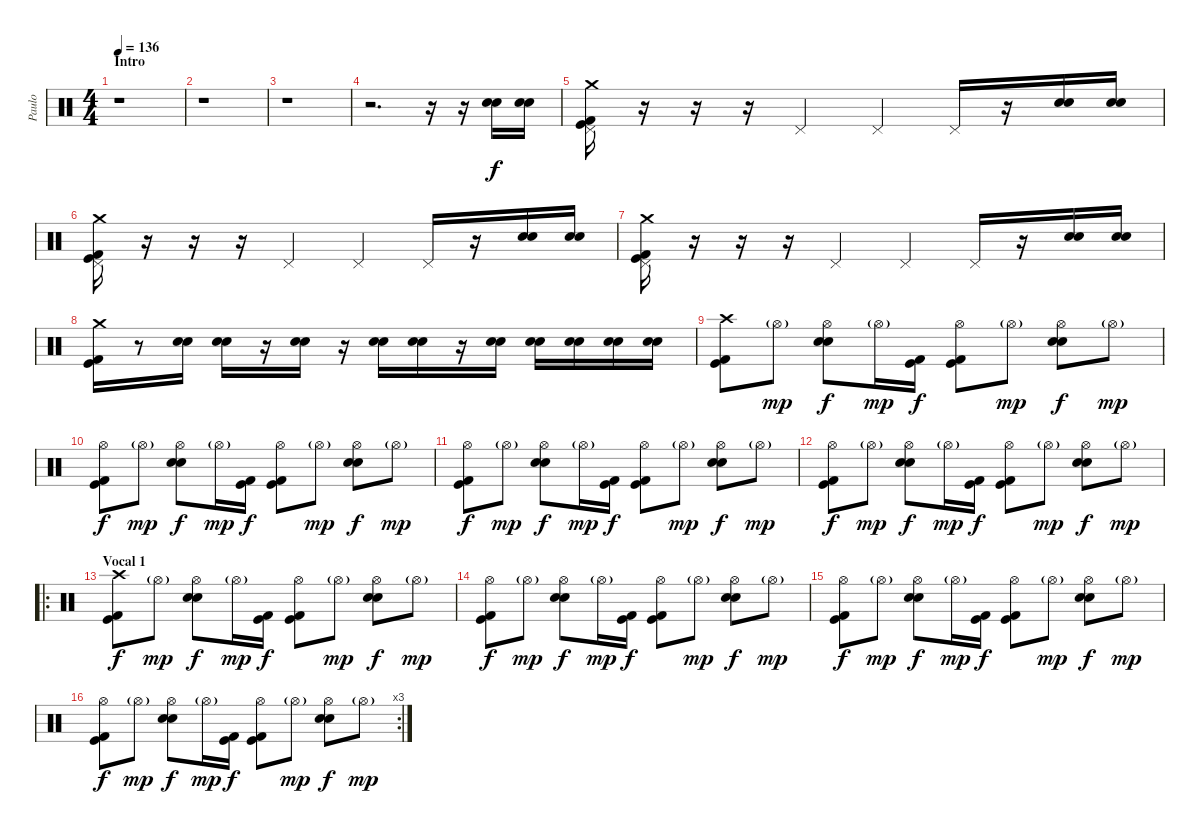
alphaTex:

\track ("Paulo" "Paulo") {instrument percussion}
\staff {score}
\articulation defaults
\ts (4 4)
\section ("" "Intro")
\tempo 136
\clef neutral
\ks c
r.1{dy f} |
r.1 |
r.1 |
r.2{d} r.16 r.16 ("Snare (hit) 2" "Electric Snare (hit)").16 ("Snare (hit) 2" "Electric Snare (hit)").16 |
("Crash medium (hit)" "Kick (hit) 2" "Kick (hit)" "Pedal Hi-Hat (hit)").16 r.16 r.16 r.16 "Pedal Hi-Hat (hit)".4 "Pedal Hi-Hat (hit)".4 "Pedal Hi-Hat (hit)".16 r.16 ("Snare (hit) 2" "Electric Snare (hit)").16 ("Snare (hit) 2" "Electric Snare (hit)").16 |
("Crash medium (hit)" "Kick (hit) 2" "Kick (hit)" "Pedal Hi-Hat (hit)").16 r.16 r.16 r.16 "Pedal Hi-Hat (hit)".4 "Pedal Hi-Hat (hit)".4 "Pedal Hi-Hat (hit)".16 r.16 ("Snare (hit) 2" "Electric Snare (hit)").16 ("Snare (hit) 2" "Electric Snare (hit)").16 |
("Crash medium (hit)" "Kick (hit) 2" "Kick (hit)" "Pedal Hi-Hat (hit)").16 r.16 r.16 r.16 "Pedal Hi-Hat (hit)".4 "Pedal Hi-Hat (hit)".4 "Pedal Hi-Hat (hit)".16 r.16 ("Snare (hit) 2" "Electric Snare (hit)").16 ("Snare (hit) 2" "Electric Snare (hit)").16 |
("Crash medium (hit)" "Kick (hit) 2" "Kick (hit)").16 r.8 ("Snare (hit) 2" "Electric Snare (hit)").16 ("Snare (hit) 2" "Electric Snare (hit)").16 r.16 ("Snare (hit) 2" "Electric Snare (hit)").16 r.16 ("Snare (hit) 2" "Electric Snare (hit)").16 ("Snare (hit) 2" "Electric Snare (hit)").16 r.16 ("Snare (hit) 2" "Electric Snare (hit)").16 ("Electric Snare (hit)" "Snare (hit) 2").16 ("Electric Snare (hit)" "Snare (hit) 2").16 ("Electric Snare (hit)" "Snare (hit) 2").16 ("Electric Snare (hit)" "Snare (hit) 2").16 |
("Crash high (hit)" "Kick (hit) 2" "Kick (hit)").8 "Hi-Hat (open)"{g}.8{dy mp} ("Hi-Hat (open)" "Electric Snare (hit)" "Snare (hit) 2").8{dy f} "Hi-Hat (open)"{g}.16{dy mp} ("Kick (hit) 2" "Kick (hit)").16{dy f} ("Hi-Hat (open)" "Kick (hit) 2" "Kick (hit)").8 "Hi-Hat (open)"{g}.8{dy mp} ("Hi-Hat (open)" "Electric Snare (hit)" "Snare (hit) 2").8{dy f} "Hi-Hat (open)"{g}.8{dy mp} |
("Hi-Hat (open)" "Kick (hit) 2" "Kick (hit)").8{dy f} "Hi-Hat (open)"{g}.8{dy mp} ("Hi-Hat (open)" "Electric Snare (hit)" "Snare (hit) 2").8{dy f} "Hi-Hat (open)"{g}.16{dy mp} ("Kick (hit) 2" "Kick (hit)").16{dy f} ("Hi-Hat (open)" "Kick (hit) 2" "Kick (hit)").8 "Hi-Hat (open)"{g}.8{dy mp} ("Hi-Hat (open)" "Electric Snare (hit)" "Snare (hit) 2").8{dy f} "Hi-Hat (open)"{g}.8{dy mp} |
("Hi-Hat (open)" "Kick (hit) 2" "Kick (hit)").8{dy f} "Hi-Hat (open)"{g}.8{dy mp} ("Hi-Hat (open)" "Electric Snare (hit)" "Snare (hit) 2").8{dy f} "Hi-Hat (open)"{g}.16{dy mp} ("Kick (hit) 2" "Kick (hit)").16{dy f} ("Hi-Hat (open)" "Kick (hit) 2" "Kick (hit)").8 "Hi-Hat (open)"{g}.8{dy mp} ("Hi-Hat (open)" "Electric Snare (hit)" "Snare (hit) 2").8{dy f} "Hi-Hat (open)"{g}.8{dy mp} |
("Hi-Hat (open)" "Kick (hit) 2" "Kick (hit)").8{dy f} "Hi-Hat (open)"{g}.8{dy mp} ("Hi-Hat (open)" "Electric Snare (hit)" "Snare (hit) 2").8{dy f} "Hi-Hat (open)"{g}.16{dy mp} ("Kick (hit) 2" "Kick (hit)").16{dy f} ("Hi-Hat (open)" "Kick (hit) 2" "Kick (hit)").8 "Hi-Hat (open)"{g}.8{dy mp} ("Hi-Hat (open)" "Electric Snare (hit)" "Snare (hit) 2").8{dy f} "Hi-Hat (open)"{g}.8{dy mp} |
\ro
\section ("" "Vocal 1")
("Crash high (hit)" "Kick (hit) 2" "Kick (hit)").8{dy f} "Hi-Hat (open)"{g}.8{dy mp} ("Hi-Hat (open)" "Electric Snare (hit)" "Snare (hit) 2").8{dy f} "Hi-Hat (open)"{g}.16{dy mp} ("Kick (hit) 2" "Kick (hit)").16{dy f} ("Hi-Hat (open)" "Kick (hit) 2" "Kick (hit)").8 "Hi-Hat (open)"{g}.8{dy mp} ("Hi-Hat (open)" "Electric Snare (hit)" "Snare (hit) 2").8{dy f} "Hi-Hat (open)"{g}.8{dy mp} |
("Hi-Hat (open)" "Kick (hit) 2" "Kick (hit)").8{dy f} "Hi-Hat (open)"{g}.8{dy mp} ("Hi-Hat (open)" "Electric Snare (hit)" "Snare (hit) 2").8{dy f} "Hi-Hat (open)"{g}.16{dy mp} ("Kick (hit) 2" "Kick (hit)").16{dy f} ("Hi-Hat (open)" "Kick (hit) 2" "Kick (hit)").8 "Hi-Hat (open)"{g}.8{dy mp} ("Hi-Hat (open)" "Electric Snare (hit)" "Snare (hit) 2").8{dy f} "Hi-Hat (open)"{g}.8{dy mp} |
("Hi-Hat (open)" "Kick (hit) 2" "Kick (hit)").8{dy f} "Hi-Hat (open)"{g}.8{dy mp} ("Hi-Hat (open)" "Electric Snare (hit)" "Snare (hit) 2").8{dy f} "Hi-Hat (open)"{g}.16{dy mp} ("Kick (hit) 2" "Kick (hit)").16{dy f} ("Hi-Hat (open)" "Kick (hit) 2" "Kick (hit)").8 "Hi-Hat (open)"{g}.8{dy mp} ("Hi-Hat (open)" "Electric Snare (hit)" "Snare (hit) 2").8{dy f} "Hi-Hat (open)"{g}.8{dy mp} |
\rc 3
("Hi-Hat (open)" "Kick (hit) 2" "Kick (hit)").8{dy f} "Hi-Hat (open)"{g}.8{dy mp} ("Hi-Hat (open)" "Electric Snare (hit)" "Snare (hit) 2").8{dy f} "Hi-Hat (open)"{g}.16{dy mp} ("Kick (hit) 2" "Kick (hit)").16{dy f} ("Hi-Hat (open)" "Kick (hit) 2" "Kick (hit)").8 "Hi-Hat (open)"{g}.8{dy mp} ("Hi-Hat (open)" "Electric Snare (hit)" "Snare (hit) 2").8{dy f} "Hi-Hat (open)"{g}.8{dy mp}
